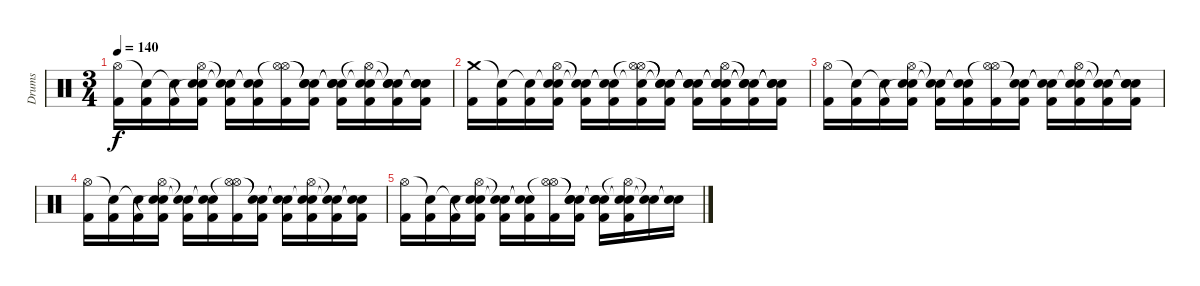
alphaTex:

\track ("Drums" "Drums") {instrument percussion}
\staff {score}
\articulation defaults
\ts (3 4)
\tempo 140
\clef neutral
\ks c
("Hi-Hat (open)" "Kick (hit) 2").16{dy f} ("Snare (hit)"{t} "Kick (hit) 2").16 ("Snare (hit)"{t} "Kick (hit) 2").16 ("Hi-Hat (open)" "Snare (hit)"{t} "Electric Snare (hit)" "Kick (hit) 2").16 ("Snare (hit)"{t} "Snare (hit)"{t} "Kick (hit) 2").16 ("Snare (hit)"{t} "Snare (hit)"{t} "Kick (hit) 2").16 ("Hi-Hat (open)"{t} "Hi-Hat (open)" "Kick (hit) 2").16 ("Snare (hit)"{t} "Snare (hit)"{t} "Electric Snare (hit)" "Kick (hit) 2").16 ("Snare (hit)"{t} "Snare (hit)"{t} "Electric Snare (hit)" "Kick (hit) 2").16 ("Hi-Hat (open)"{t} "Snare (hit)"{t} "Electric Snare (hit)" "Kick (hit) 2").16 ("Snare (hit)"{t} "Snare (hit)"{t} "Electric Snare (hit)" "Kick (hit) 2").16 ("Snare (hit)"{t} "Snare (hit)"{t} "Electric Snare (hit)" "Kick (hit) 2").16 |
("Crash medium (hit)" "Kick (hit) 2").16 ("Snare (hit)"{t} "Kick (hit) 2").16 ("Snare (hit)"{t} "Kick (hit) 2").16 ("Snare (hit)"{t} "Hi-Hat (open)" "Electric Snare (hit)" "Kick (hit) 2").16 ("Snare (hit)"{t} "Snare (hit)"{t} "Kick (hit) 2").16 ("Snare (hit)"{t} "Snare (hit)"{t} "Kick (hit) 2").16 ("Snare (hit)"{t} "Hi-Hat (open)"{t} "Hi-Hat (open)" "Kick (hit) 2").16 ("Snare (hit)"{t} "Snare (hit)"{t} "Snare (hit)"{t} "Kick (hit) 2").16 ("Snare (hit)"{t} "Snare (hit)"{t} "Snare (hit)"{t} "Kick (hit) 2").16 ("Snare (hit)"{t} "Hi-Hat (open)" "Snare (hit)"{t} "Electric Snare (hit)" "Kick (hit) 2").16 ("Snare (hit)"{t} "Snare (hit)"{t} "Snare (hit)"{t} "Kick (hit) 2").16 ("Snare (hit)"{t} "Snare (hit)"{t} "Snare (hit)"{t} "Kick (hit) 2").16 |
("Hi-Hat (open)" "Kick (hit) 2").16 ("Snare (hit)"{t} "Kick (hit) 2").16 ("Snare (hit)"{t} "Kick (hit) 2").16 ("Hi-Hat (open)" "Snare (hit)"{t} "Electric Snare (hit)" "Kick (hit) 2").16 ("Snare (hit)"{t} "Snare (hit)"{t} "Kick (hit) 2").16 ("Snare (hit)"{t} "Snare (hit)"{t} "Kick (hit) 2").16 ("Hi-Hat (open)"{t} "Hi-Hat (open)" "Kick (hit) 2").16 ("Snare (hit)"{t} "Snare (hit)"{t} "Kick (hit) 2").16 ("Snare (hit)"{t} "Snare (hit)"{t} "Kick (hit) 2").16 ("Hi-Hat (open)" "Snare (hit)"{t} "Electric Snare (hit)" "Kick (hit) 2").16 ("Snare (hit)"{t} "Snare (hit)"{t} "Kick (hit) 2").16 ("Snare (hit)"{t} "Snare (hit)"{t} "Electric Snare (hit)" "Kick (hit) 2").16 |
("Hi-Hat (open)" "Kick (hit) 2").16 ("Snare (hit)"{t} "Kick (hit) 2").16 ("Snare (hit)"{t} "Kick (hit) 2").16 ("Hi-Hat (open)" "Snare (hit)"{t} "Electric Snare (hit)" "Kick (hit) 2").16 ("Snare (hit)"{t} "Snare (hit)"{t} "Kick (hit) 2").16 ("Snare (hit)"{t} "Snare (hit)"{t} "Kick (hit) 2").16 ("Hi-Hat (open)"{t} "Hi-Hat (open)" "Kick (hit) 2").16 ("Snare (hit)"{t} "Snare (hit)"{t} "Kick (hit) 2").16 ("Snare (hit)"{t} "Snare (hit)"{t} "Kick (hit) 2").16 ("Hi-Hat (open)" "Snare (hit)"{t} "Electric Snare (hit)" "Kick (hit) 2").16 ("Snare (hit)"{t} "Snare (hit)"{t} "Kick (hit) 2").16 ("Snare (hit)"{t} "Snare (hit)"{t} "Kick (hit) 2").16 |
("Hi-Hat (open)" "Kick (hit) 2").16 ("Snare (hit)"{t} "Kick (hit) 2").16 ("Snare (hit)"{t} "Kick (hit) 2").16 ("Hi-Hat (open)" "Snare (hit)"{t} "Electric Snare (hit)" "Kick (hit) 2").16 ("Snare (hit)"{t} "Snare (hit)"{t} "Kick (hit) 2").16 ("Snare (hit)"{t} "Snare (hit)"{t} "Kick (hit) 2").16 ("Hi-Hat (open)"{t} "Hi-Hat (open)" "Kick (hit) 2").16 ("Snare (hit)"{t} "Snare (hit)"{t} "Electric Snare (hit)" "Kick (hit) 2").16 ("Snare (hit)"{t} "Snare (hit)"{t} "Electric Snare (hit)" "Kick (hit) 2").16 ("Hi-Hat (open)"{t} "Snare (hit)"{t} "Electric Snare (hit)" "Kick (hit) 2").16 ("Snare (hit)"{t} "Snare (hit)"{t}).16 ("Snare (hit)"{t} "Snare (hit)"{t}).16
